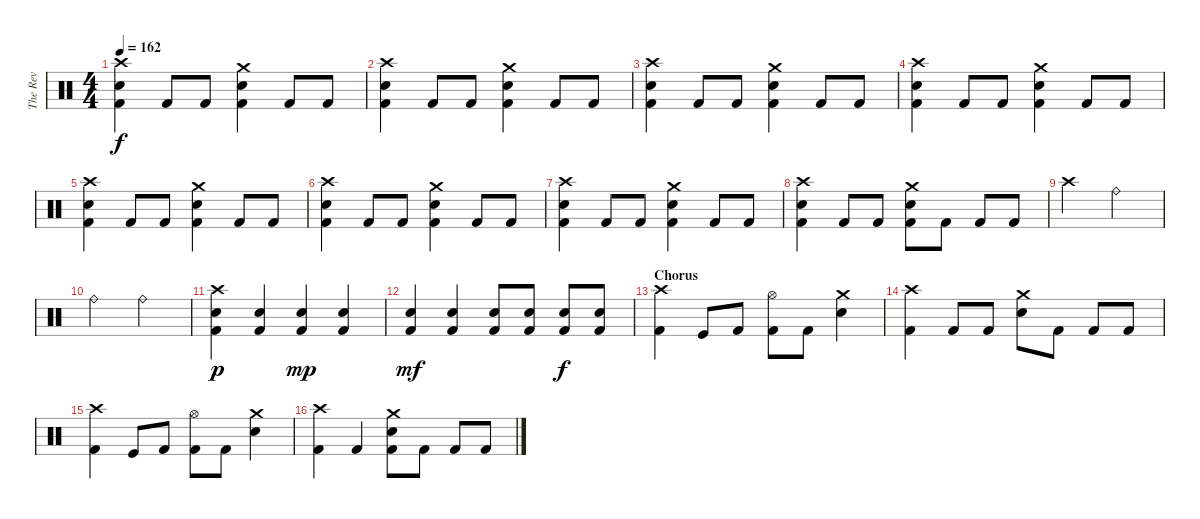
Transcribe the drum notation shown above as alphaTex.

\track ("The Rev" "The Rev") {instrument percussion}
\staff {score}
\articulation defaults
\ts (4 4)
\tempo 162
\clef neutral
\ks c
("Crash high (hit)" "Electric Snare (hit)" "Kick (hit) 2").4{dy f} "Kick (hit) 2".8 "Kick (hit) 2".8 ("Crash medium (hit)" "Electric Snare (hit)" "Kick (hit) 2").4 "Kick (hit) 2".8 "Kick (hit) 2".8 |
("Crash high (hit)" "Electric Snare (hit)" "Kick (hit) 2").4 "Kick (hit) 2".8 "Kick (hit) 2".8 ("Crash medium (hit)" "Electric Snare (hit)" "Kick (hit) 2").4 "Kick (hit) 2".8 "Kick (hit) 2".8 |
("Crash high (hit)" "Electric Snare (hit)" "Kick (hit) 2").4 "Kick (hit) 2".8 "Kick (hit) 2".8 ("Crash medium (hit)" "Electric Snare (hit)" "Kick (hit) 2").4 "Kick (hit) 2".8 "Kick (hit) 2".8 |
("Crash high (hit)" "Electric Snare (hit)" "Kick (hit) 2").4 "Kick (hit) 2".8 "Kick (hit) 2".8 ("Crash medium (hit)" "Electric Snare (hit)" "Kick (hit) 2").4 "Kick (hit) 2".8 "Kick (hit) 2".8 |
("Crash high (hit)" "Electric Snare (hit)" "Kick (hit) 2").4 "Kick (hit) 2".8 "Kick (hit) 2".8 ("Crash medium (hit)" "Electric Snare (hit)" "Kick (hit) 2").4 "Kick (hit) 2".8 "Kick (hit) 2".8 |
("Crash high (hit)" "Electric Snare (hit)" "Kick (hit) 2").4 "Kick (hit) 2".8 "Kick (hit) 2".8 ("Crash medium (hit)" "Electric Snare (hit)" "Kick (hit) 2").4 "Kick (hit) 2".8 "Kick (hit) 2".8 |
("Crash high (hit)" "Electric Snare (hit)" "Kick (hit) 2").4 "Kick (hit) 2".8 "Kick (hit) 2".8 ("Crash medium (hit)" "Electric Snare (hit)" "Kick (hit) 2").4 "Kick (hit) 2".8 "Kick (hit) 2".8 |
("Crash high (hit)" "Electric Snare (hit)" "Kick (hit) 2").4 "Kick (hit) 2".8 "Kick (hit) 2".8 ("Crash medium (hit)" "Electric Snare (hit)" "Kick (hit) 2").8 "Kick (hit) 2".8 "Kick (hit) 2".8 "Kick (hit) 2".8 |
"Crash high (hit)".2 "Ride (bell)".2 |
"Ride (bell)".2 "Ride (bell)".2 |
("Crash high (hit)" "Electric Snare (hit)" "Kick (hit) 2").4{dy p} ("Electric Snare (hit)" "Kick (hit) 2").4 ("Electric Snare (hit)" "Kick (hit) 2").4{dy mp} ("Electric Snare (hit)" "Kick (hit) 2").4 |
("Electric Snare (hit)" "Kick (hit) 2").4{dy mf} ("Electric Snare (hit)" "Kick (hit) 2").4 ("Electric Snare (hit)" "Kick (hit) 2").8 ("Electric Snare (hit)" "Kick (hit) 2").8 ("Electric Snare (hit)" "Kick (hit) 2").8{dy f} ("Electric Snare (hit)" "Kick (hit) 2").8 |
\section ("" "Chorus")
("Crash high (hit)" "Kick (hit) 2").4 "Kick (hit)".8 "Kick (hit) 2".8 ("Hi-Hat (open)" "Kick (hit) 2").8 "Kick (hit) 2".8 ("Crash medium (hit)" "Electric Snare (hit)").4 |
("Crash high (hit)" "Kick (hit) 2").4 "Kick (hit) 2".8 "Kick (hit) 2".8 ("Crash medium (hit)" "Electric Snare (hit)").8 "Kick (hit) 2".8 "Kick (hit) 2".8 "Kick (hit) 2".8 |
("Crash high (hit)" "Kick (hit) 2").4 "Kick (hit)".8 "Kick (hit) 2".8 ("Hi-Hat (open)" "Kick (hit) 2").8 "Kick (hit) 2".8 ("Crash medium (hit)" "Electric Snare (hit)").4 |
("Crash high (hit)" "Kick (hit) 2").4 "Kick (hit) 2".4 ("Crash medium (hit)" "Electric Snare (hit)" "Kick (hit) 2").8 "Kick (hit) 2".8 "Kick (hit) 2".8 "Kick (hit) 2".8
